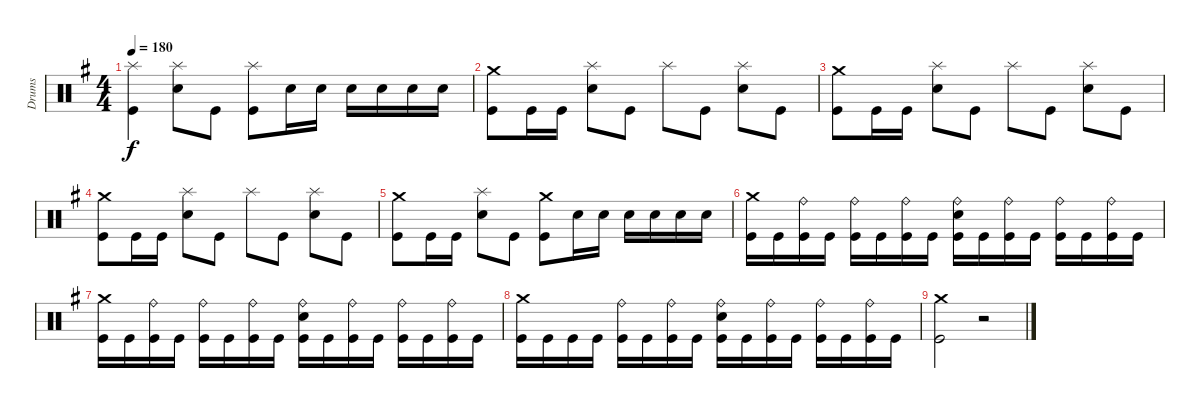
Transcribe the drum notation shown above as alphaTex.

\track ("Drums" "Drums") {instrument percussion}
\staff {score}
\articulation defaults
\ts (4 4)
\tempo 180
\clef neutral
\ks g
("Kick (hit)" "Splash (hit)").4{dy f} ("Electric Snare (hit)" "Splash (hit)").8 "Kick (hit)".8 ("Kick (hit)" "Splash (hit)").8 "Electric Snare (hit)".16 "Electric Snare (hit)".16 "Electric Snare (hit)".16 "Electric Snare (hit)".16 "Electric Snare (hit)".16 "Electric Snare (hit)".16 |
("Kick (hit)" "Crash medium (hit)").8 "Kick (hit)".16 "Kick (hit)".16 ("Electric Snare (hit)" "Splash (hit)").8 "Kick (hit)".8 "Splash (hit)".8 "Kick (hit)".8 ("Electric Snare (hit)" "Splash (hit)").8 "Kick (hit)".8 |
("Kick (hit)" "Crash medium (hit)").8 "Kick (hit)".16 "Kick (hit)".16 ("Electric Snare (hit)" "Splash (hit)").8 "Kick (hit)".8 "Splash (hit)".8 "Kick (hit)".8 ("Electric Snare (hit)" "Splash (hit)").8 "Kick (hit)".8 |
("Kick (hit)" "Crash medium (hit)").8 "Kick (hit)".16 "Kick (hit)".16 ("Electric Snare (hit)" "Splash (hit)").8 "Kick (hit)".8 "Splash (hit)".8 "Kick (hit)".8 ("Electric Snare (hit)" "Splash (hit)").8 "Kick (hit)".8 |
("Kick (hit)" "Crash medium (hit)").8 "Kick (hit)".16 "Kick (hit)".16 ("Electric Snare (hit)" "Splash (hit)").8 "Kick (hit)".8 ("Kick (hit)" "Crash medium (hit)").8 "Electric Snare (hit)".16 "Electric Snare (hit)".16 "Electric Snare (hit)".16 "Electric Snare (hit)".16 "Electric Snare (hit)".16 "Electric Snare (hit)".16 |
("Kick (hit)" "Crash medium (hit)").16 "Kick (hit)".16 ("Kick (hit)" "Ride (bell)").16 "Kick (hit)".16 ("Kick (hit)" "Ride (bell)").16 "Kick (hit)".16 ("Kick (hit)" "Ride (bell)").16 "Kick (hit)".16 ("Kick (hit)" "Electric Snare (hit)" "Ride (bell)").16 "Kick (hit)".16 ("Kick (hit)" "Ride (bell)").16 "Kick (hit)".16 ("Kick (hit)" "Ride (bell)").16 "Kick (hit)".16 ("Kick (hit)" "Ride (bell)").16 "Kick (hit)".16 |
("Kick (hit)" "Crash medium (hit)").16 "Kick (hit)".16 ("Kick (hit)" "Ride (bell)").16 "Kick (hit)".16 ("Kick (hit)" "Ride (bell)").16 "Kick (hit)".16 ("Kick (hit)" "Ride (bell)").16 "Kick (hit)".16 ("Kick (hit)" "Electric Snare (hit)" "Ride (bell)").16 "Kick (hit)".16 ("Kick (hit)" "Ride (bell)").16 "Kick (hit)".16 ("Kick (hit)" "Ride (bell)").16 "Kick (hit)".16 ("Kick (hit)" "Ride (bell)").16 "Kick (hit)".16 |
("Kick (hit)" "Crash medium (hit)").16 "Kick (hit)".16 "Kick (hit)".16 "Kick (hit)".16 ("Kick (hit)" "Ride (bell)").16 "Kick (hit)".16 ("Kick (hit)" "Ride (bell)").16 "Kick (hit)".16 ("Kick (hit)" "Electric Snare (hit)" "Ride (bell)").16 "Kick (hit)".16 ("Kick (hit)" "Ride (bell)").16 "Kick (hit)".16 ("Kick (hit)" "Ride (bell)").16 "Kick (hit)".16 ("Kick (hit)" "Ride (bell)").16 "Kick (hit)".16 |
("Kick (hit)" "Crash medium (hit)").2 r.2
